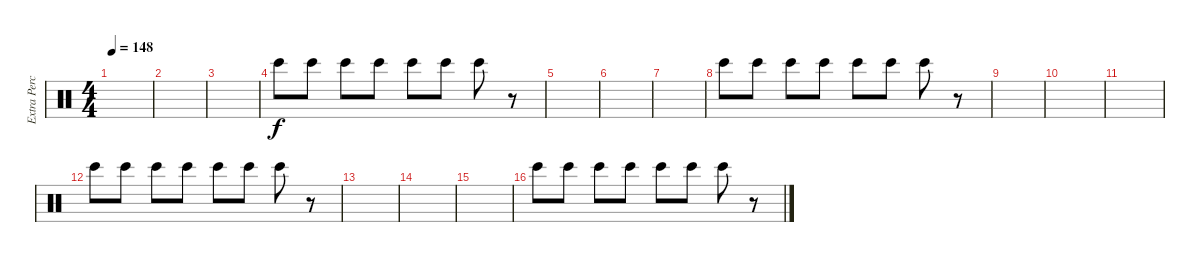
\track ("Extra Percussion" "Extra Perc") {instrument percussion}
\staff {score}
\articulation defaults
\ts (4 4)
\tempo 148
\clef neutral
\ks c
|
|
|
"Bongo High (hit)".8 "Bongo High (hit)".8 "Bongo High (hit)".8 "Bongo High (hit)".8 "Bongo High (hit)".8 "Bongo High (hit)".8 "Bongo High (hit)".8 r.8 |
|
|
|
"Bongo High (hit)".8 "Bongo High (hit)".8 "Bongo High (hit)".8 "Bongo High (hit)".8 "Bongo High (hit)".8 "Bongo High (hit)".8 "Bongo High (hit)".8 r.8 |
|
|
|
"Bongo High (hit)".8 "Bongo High (hit)".8 "Bongo High (hit)".8 "Bongo High (hit)".8 "Bongo High (hit)".8 "Bongo High (hit)".8 "Bongo High (hit)".8 r.8 |
|
|
|
"Bongo High (hit)".8 "Bongo High (hit)".8 "Bongo High (hit)".8 "Bongo High (hit)".8 "Bongo High (hit)".8 "Bongo High (hit)".8 "Bongo High (hit)".8 r.8
